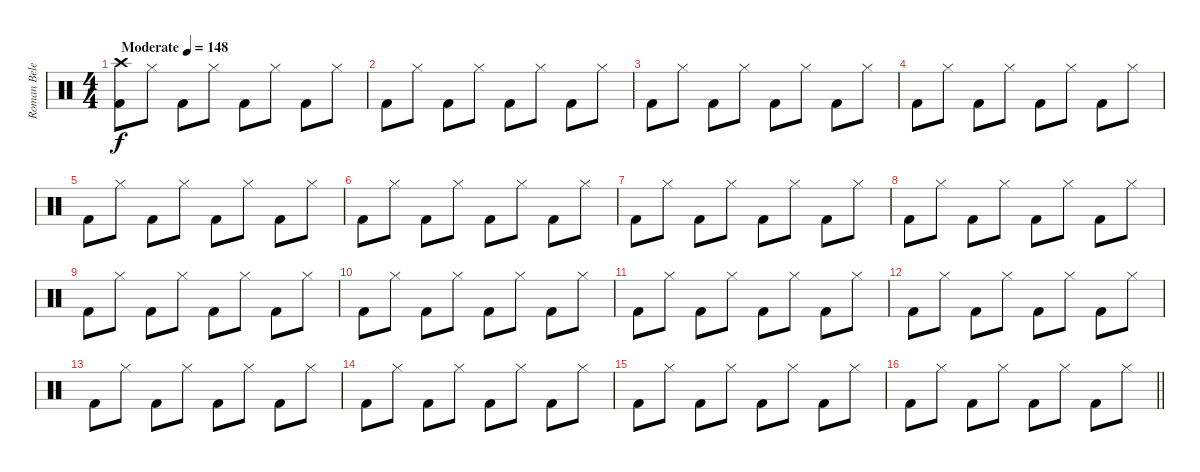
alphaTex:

\track ("Roman Belenkiy" "Roman Bele") {instrument percussion}
\staff {score}
\articulation defaults
\ts (4 4)
\tempo (148 "Moderate")
\clef neutral
\ks c
("Crash high (hit)" "Kick (hit) 2").8{dy f} "Hi-Hat (closed)".8 "Kick (hit) 2".8 "Hi-Hat (closed)".8 "Kick (hit) 2".8 "Hi-Hat (closed)".8 "Kick (hit) 2".8 "Hi-Hat (closed)".8 |
"Kick (hit) 2".8 "Hi-Hat (closed)".8 "Kick (hit) 2".8 "Hi-Hat (closed)".8 "Kick (hit) 2".8 "Hi-Hat (closed)".8 "Kick (hit) 2".8 "Hi-Hat (closed)".8 |
"Kick (hit) 2".8 "Hi-Hat (closed)".8 "Kick (hit) 2".8 "Hi-Hat (closed)".8 "Kick (hit) 2".8 "Hi-Hat (closed)".8 "Kick (hit) 2".8 "Hi-Hat (closed)".8 |
"Kick (hit) 2".8 "Hi-Hat (closed)".8 "Kick (hit) 2".8 "Hi-Hat (closed)".8 "Kick (hit) 2".8 "Hi-Hat (closed)".8 "Kick (hit) 2".8 "Hi-Hat (closed)".8 |
"Kick (hit) 2".8 "Hi-Hat (closed)".8 "Kick (hit) 2".8 "Hi-Hat (closed)".8 "Kick (hit) 2".8 "Hi-Hat (closed)".8 "Kick (hit) 2".8 "Hi-Hat (closed)".8 |
"Kick (hit) 2".8 "Hi-Hat (closed)".8 "Kick (hit) 2".8 "Hi-Hat (closed)".8 "Kick (hit) 2".8 "Hi-Hat (closed)".8 "Kick (hit) 2".8 "Hi-Hat (closed)".8 |
"Kick (hit) 2".8 "Hi-Hat (closed)".8 "Kick (hit) 2".8 "Hi-Hat (closed)".8 "Kick (hit) 2".8 "Hi-Hat (closed)".8 "Kick (hit) 2".8 "Hi-Hat (closed)".8 |
"Kick (hit) 2".8 "Hi-Hat (closed)".8 "Kick (hit) 2".8 "Hi-Hat (closed)".8 "Kick (hit) 2".8 "Hi-Hat (closed)".8 "Kick (hit) 2".8 "Hi-Hat (closed)".8 |
"Kick (hit) 2".8 "Hi-Hat (closed)".8 "Kick (hit) 2".8 "Hi-Hat (closed)".8 "Kick (hit) 2".8 "Hi-Hat (closed)".8 "Kick (hit) 2".8 "Hi-Hat (closed)".8 |
"Kick (hit) 2".8 "Hi-Hat (closed)".8 "Kick (hit) 2".8 "Hi-Hat (closed)".8 "Kick (hit) 2".8 "Hi-Hat (closed)".8 "Kick (hit) 2".8 "Hi-Hat (closed)".8 |
"Kick (hit) 2".8 "Hi-Hat (closed)".8 "Kick (hit) 2".8 "Hi-Hat (closed)".8 "Kick (hit) 2".8 "Hi-Hat (closed)".8 "Kick (hit) 2".8 "Hi-Hat (closed)".8 |
"Kick (hit) 2".8 "Hi-Hat (closed)".8 "Kick (hit) 2".8 "Hi-Hat (closed)".8 "Kick (hit) 2".8 "Hi-Hat (closed)".8 "Kick (hit) 2".8 "Hi-Hat (closed)".8 |
"Kick (hit) 2".8 "Hi-Hat (closed)".8 "Kick (hit) 2".8 "Hi-Hat (closed)".8 "Kick (hit) 2".8 "Hi-Hat (closed)".8 "Kick (hit) 2".8 "Hi-Hat (closed)".8 |
"Kick (hit) 2".8 "Hi-Hat (closed)".8 "Kick (hit) 2".8 "Hi-Hat (closed)".8 "Kick (hit) 2".8 "Hi-Hat (closed)".8 "Kick (hit) 2".8 "Hi-Hat (closed)".8 |
"Kick (hit) 2".8 "Hi-Hat (closed)".8 "Kick (hit) 2".8 "Hi-Hat (closed)".8 "Kick (hit) 2".8 "Hi-Hat (closed)".8 "Kick (hit) 2".8 "Hi-Hat (closed)".8 |
\barLineRight lightlight "Kick (hit) 2".8 "Hi-Hat (closed)".8 "Kick (hit) 2".8 "Hi-Hat (closed)".8 "Kick (hit) 2".8 "Hi-Hat (closed)".8 "Kick (hit) 2".8 "Hi-Hat (closed)".8
